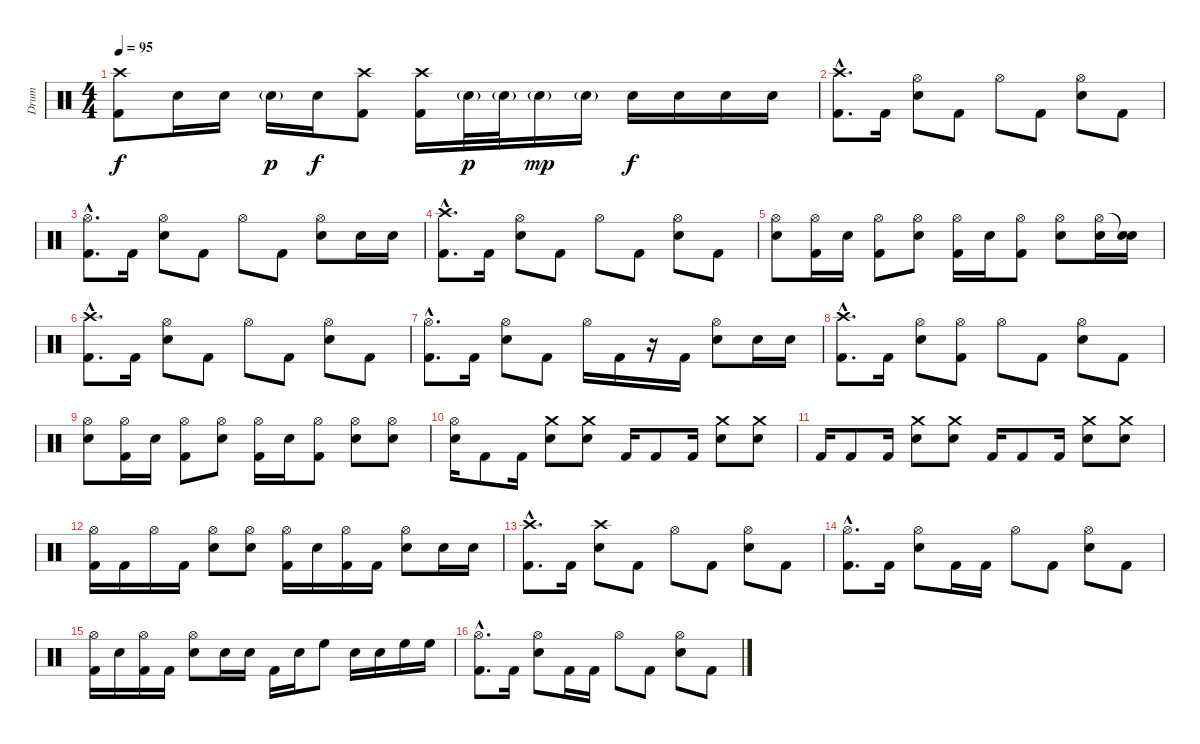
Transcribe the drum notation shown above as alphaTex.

\track ("Drum" "Drum") {instrument percussion}
\staff {score}
\articulation defaults
\ts (4 4)
\tempo 95
\clef neutral
\ks c
("Crash high (hit)" "Kick (hit) 2").8{dy f} "Electric Snare (hit)".16 "Electric Snare (hit)".16 "Electric Snare (hit)"{g}.16{dy p} "Electric Snare (hit)".16{dy f} ("Crash high (hit)" "Kick (hit) 2").8 ("Crash high (hit)" "Kick (hit) 2").16 "Electric Snare (hit)"{g}.32{dy p} "Electric Snare (hit)"{g}.32 "Electric Snare (hit)"{g}.16{dy mp} "Electric Snare (hit)"{g}.16 "Electric Snare (hit)".16{dy f} "Electric Snare (hit)".16 "Electric Snare (hit)".16 "Electric Snare (hit)".16 |
("Crash high (hit)"{hac} "Kick (hit) 2"{hac}).8{d} "Kick (hit) 2".16 ("Hi-Hat (open)" "Electric Snare (hit)").8 "Kick (hit) 2".8 "Hi-Hat (open)".8 "Kick (hit) 2".8 ("Hi-Hat (open)" "Electric Snare (hit)").8 "Kick (hit) 2".8 |
("Hi-Hat (open)"{hac} "Kick (hit) 2"{hac}).8{d} "Kick (hit) 2".16 ("Hi-Hat (open)" "Electric Snare (hit)").8 "Kick (hit) 2".8 "Hi-Hat (open)".8 "Kick (hit) 2".8 ("Hi-Hat (open)" "Electric Snare (hit)").8 "Electric Snare (hit)".16 "Electric Snare (hit)".16 |
("Crash high (hit)"{hac} "Kick (hit) 2"{hac}).8{d} "Kick (hit) 2".16 ("Hi-Hat (open)" "Electric Snare (hit)").8 "Kick (hit) 2".8 "Hi-Hat (open)".8 "Kick (hit) 2".8 ("Hi-Hat (open)" "Electric Snare (hit)").8 "Kick (hit) 2".8 |
("Hi-Hat (open)" "Electric Snare (hit)").8 ("Hi-Hat (open)" "Kick (hit) 2").16 "Electric Snare (hit)".16 ("Hi-Hat (open)" "Kick (hit) 2").8 ("Hi-Hat (open)" "Electric Snare (hit)").8 ("Hi-Hat (open)" "Kick (hit) 2").16 "Electric Snare (hit)".16 ("Hi-Hat (open)" "Kick (hit) 2").8 ("Hi-Hat (open)" "Electric Snare (hit)").8 ("Hi-Hat (open)" "Electric Snare (hit)").16 ("Snare (hit)"{t} "Electric Snare (hit)").16 |
("Crash high (hit)"{hac} "Kick (hit) 2"{hac}).8{d} "Kick (hit) 2".16 ("Hi-Hat (open)" "Electric Snare (hit)").8 "Kick (hit) 2".8 "Hi-Hat (open)".8 "Kick (hit) 2".8 ("Hi-Hat (open)" "Electric Snare (hit)").8 "Kick (hit) 2".8 |
("Hi-Hat (open)"{hac} "Kick (hit) 2"{hac}).8{d} "Kick (hit) 2".16 ("Hi-Hat (open)" "Electric Snare (hit)").8 "Kick (hit) 2".8 "Hi-Hat (open)".16 "Kick (hit) 2".16 r.16 "Kick (hit) 2".16 ("Hi-Hat (open)" "Electric Snare (hit)").8 "Electric Snare (hit)".16 "Electric Snare (hit)".16 |
("Crash high (hit)"{hac} "Kick (hit) 2"{hac}).8{d} "Kick (hit) 2".16 ("Hi-Hat (open)" "Electric Snare (hit)").8 ("Hi-Hat (open)" "Kick (hit) 2").8 "Hi-Hat (open)".8 "Kick (hit) 2".8 ("Hi-Hat (open)" "Electric Snare (hit)").8 "Kick (hit) 2".8 |
("Hi-Hat (open)" "Electric Snare (hit)").8 ("Hi-Hat (open)" "Kick (hit) 2").16 "Electric Snare (hit)".16 ("Hi-Hat (open)" "Kick (hit) 2").8 ("Hi-Hat (open)" "Electric Snare (hit)").8 ("Hi-Hat (open)" "Kick (hit) 2").16 "Electric Snare (hit)".16 ("Hi-Hat (open)" "Kick (hit) 2").8 ("Hi-Hat (open)" "Electric Snare (hit)").8 ("Hi-Hat (open)" "Electric Snare (hit)").8 |
("Hi-Hat (open)" "Electric Snare (hit)").16 "Kick (hit) 2".8 "Kick (hit) 2".16 ("Crash medium (hit)" "Electric Snare (hit)").8 ("Crash medium (hit)" "Electric Snare (hit)").8 "Kick (hit) 2".16 "Kick (hit) 2".8 "Kick (hit) 2".16 ("Crash medium (hit)" "Electric Snare (hit)").8 ("Crash medium (hit)" "Electric Snare (hit)").8 |
"Kick (hit) 2".16 "Kick (hit) 2".8 "Kick (hit) 2".16 ("Crash medium (hit)" "Electric Snare (hit)").8 ("Crash medium (hit)" "Electric Snare (hit)").8 "Kick (hit) 2".16 "Kick (hit) 2".8 "Kick (hit) 2".16 ("Crash medium (hit)" "Electric Snare (hit)").8 ("Crash medium (hit)" "Electric Snare (hit)").8 |
("Hi-Hat (open)" "Kick (hit) 2").16 "Kick (hit) 2".16 "Hi-Hat (open)".16 "Kick (hit) 2".16 ("Hi-Hat (open)" "Electric Snare (hit)").8 ("Hi-Hat (open)" "Electric Snare (hit)").8 ("Hi-Hat (open)" "Kick (hit) 2").16 "Electric Snare (hit)".16 ("Hi-Hat (open)" "Kick (hit) 2").16 "Kick (hit) 2".16 ("Hi-Hat (open)" "Electric Snare (hit)").8 "Electric Snare (hit)".16 "Electric Snare (hit)".16 |
("Crash high (hit)"{hac} "Kick (hit) 2"{hac}).8{d} "Kick (hit) 2".16 ("Crash high (hit)" "Electric Snare (hit)").8 "Kick (hit) 2".8 "Hi-Hat (open)".8 "Kick (hit) 2".8 ("Hi-Hat (open)" "Electric Snare (hit)").8 "Kick (hit) 2".8 |
("Hi-Hat (open)"{hac} "Kick (hit) 2"{hac}).8{d} "Kick (hit) 2".16 ("Hi-Hat (open)" "Electric Snare (hit)").8 "Kick (hit) 2".16 "Kick (hit) 2".16 "Hi-Hat (open)".8 "Kick (hit) 2".8 ("Hi-Hat (open)" "Electric Snare (hit)").8 "Kick (hit) 2".8 |
("Hi-Hat (open)" "Kick (hit) 2").16 "Electric Snare (hit)".16 ("Hi-Hat (open)" "Kick (hit) 2").16 "Kick (hit) 2".16 ("Hi-Hat (open)" "Electric Snare (hit)").8 "Electric Snare (hit)".16 "Electric Snare (hit)".16 "Kick (hit) 2".16 "Electric Snare (hit)".16 "High Floor Tom (hit)".8 "Electric Snare (hit)".16 "Electric Snare (hit)".16 "High Floor Tom (hit)".16 "High Floor Tom (hit)".16 |
("Hi-Hat (open)"{hac} "Kick (hit) 2"{hac}).8{d} "Kick (hit) 2".16 ("Hi-Hat (open)" "Electric Snare (hit)").8 "Kick (hit) 2".16 "Kick (hit) 2".16 "Hi-Hat (open)".8 "Kick (hit) 2".8 ("Hi-Hat (open)" "Electric Snare (hit)").8 "Kick (hit) 2".8
